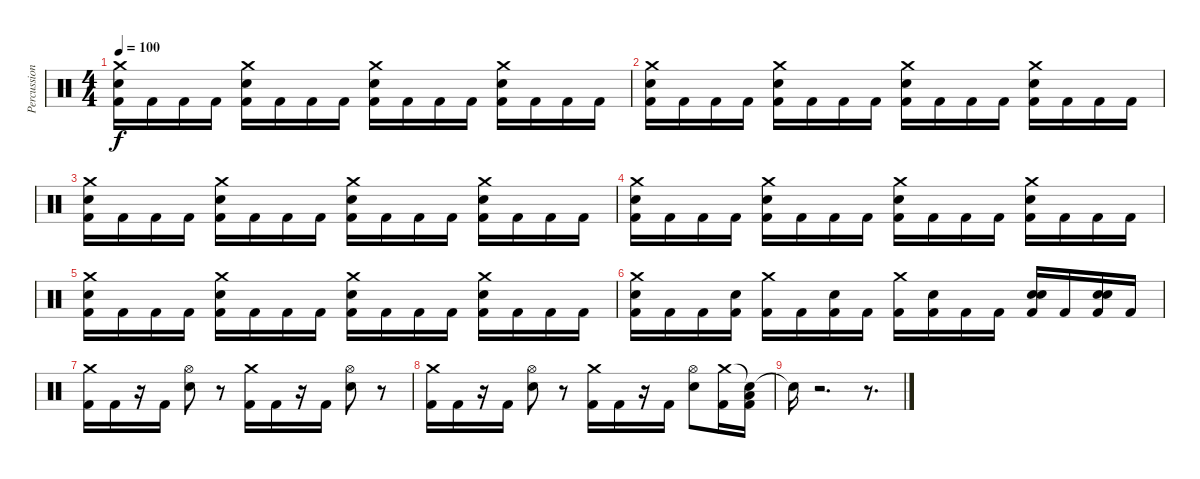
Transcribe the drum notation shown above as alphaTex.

\track ("Percussion" "Percussion") {instrument percussion}
\staff {score}
\articulation defaults
\ts (4 4)
\tempo 100
\clef neutral
\ks c
("Crash medium (hit)" "Snare (hit) 2" "Kick (hit) 2").16{dy f} "Kick (hit) 2".16 "Kick (hit) 2".16 "Kick (hit) 2".16 ("Crash medium (hit)" "Snare (hit) 2" "Kick (hit) 2").16 "Kick (hit) 2".16 "Kick (hit) 2".16 "Kick (hit) 2".16 ("Crash medium (hit)" "Snare (hit) 2" "Kick (hit) 2").16 "Kick (hit) 2".16 "Kick (hit) 2".16 "Kick (hit) 2".16 ("Crash medium (hit)" "Snare (hit) 2" "Kick (hit) 2").16 "Kick (hit) 2".16 "Kick (hit) 2".16 "Kick (hit) 2".16 |
("Crash medium (hit)" "Snare (hit) 2" "Kick (hit) 2").16 "Kick (hit) 2".16 "Kick (hit) 2".16 "Kick (hit) 2".16 ("Crash medium (hit)" "Snare (hit) 2" "Kick (hit) 2").16 "Kick (hit) 2".16 "Kick (hit) 2".16 "Kick (hit) 2".16 ("Crash medium (hit)" "Snare (hit) 2" "Kick (hit) 2").16 "Kick (hit) 2".16 "Kick (hit) 2".16 "Kick (hit) 2".16 ("Crash medium (hit)" "Snare (hit) 2" "Kick (hit) 2").16 "Kick (hit) 2".16 "Kick (hit) 2".16 "Kick (hit) 2".16 |
("Crash medium (hit)" "Snare (hit) 2" "Kick (hit) 2").16 "Kick (hit) 2".16 "Kick (hit) 2".16 "Kick (hit) 2".16 ("Crash medium (hit)" "Snare (hit) 2" "Kick (hit) 2").16 "Kick (hit) 2".16 "Kick (hit) 2".16 "Kick (hit) 2".16 ("Crash medium (hit)" "Snare (hit) 2" "Kick (hit) 2").16 "Kick (hit) 2".16 "Kick (hit) 2".16 "Kick (hit) 2".16 ("Crash medium (hit)" "Snare (hit) 2" "Kick (hit) 2").16 "Kick (hit) 2".16 "Kick (hit) 2".16 "Kick (hit) 2".16 |
("Crash medium (hit)" "Snare (hit) 2" "Kick (hit) 2").16 "Kick (hit) 2".16 "Kick (hit) 2".16 "Kick (hit) 2".16 ("Crash medium (hit)" "Snare (hit) 2" "Kick (hit) 2").16 "Kick (hit) 2".16 "Kick (hit) 2".16 "Kick (hit) 2".16 ("Crash medium (hit)" "Snare (hit) 2" "Kick (hit) 2").16 "Kick (hit) 2".16 "Kick (hit) 2".16 "Kick (hit) 2".16 ("Crash medium (hit)" "Snare (hit) 2" "Kick (hit) 2").16 "Kick (hit) 2".16 "Kick (hit) 2".16 "Kick (hit) 2".16 |
("Crash medium (hit)" "Snare (hit) 2" "Kick (hit) 2").16 "Kick (hit) 2".16 "Kick (hit) 2".16 "Kick (hit) 2".16 ("Crash medium (hit)" "Snare (hit) 2" "Kick (hit) 2").16 "Kick (hit) 2".16 "Kick (hit) 2".16 "Kick (hit) 2".16 ("Crash medium (hit)" "Snare (hit) 2" "Kick (hit) 2").16 "Kick (hit) 2".16 "Kick (hit) 2".16 "Kick (hit) 2".16 ("Crash medium (hit)" "Snare (hit) 2" "Kick (hit) 2").16 "Kick (hit) 2".16 "Kick (hit) 2".16 "Kick (hit) 2".16 |
("Crash medium (hit)" "Snare (hit) 2" "Kick (hit) 2").16 "Kick (hit) 2".16 "Kick (hit) 2".16 ("Snare (hit) 2" "Kick (hit) 2").16 ("Crash medium (hit)" "Kick (hit) 2").16 "Kick (hit) 2".16 ("Snare (hit) 2" "Kick (hit) 2").16 "Kick (hit) 2".16 ("Crash medium (hit)" "Kick (hit) 2").16 ("Snare (hit) 2" "Kick (hit) 2").16 "Kick (hit) 2".16 "Kick (hit) 2".16 ("Snare (hit) 2" "Snare (hit) 2" "Kick (hit) 2").16 "Kick (hit) 2".16 ("Snare (hit) 2" "Snare (hit) 2" "Kick (hit) 2").16 "Kick (hit) 2".16 |
("Crash medium (hit)" "Kick (hit) 2").16 "Kick (hit) 2".16 r.16 "Kick (hit) 2".16 ("Hi-Hat (open)" "Snare (hit) 2").8 r.8 ("Crash medium (hit)" "Kick (hit) 2").16 "Kick (hit) 2".16 r.16 "Kick (hit) 2".16 ("Hi-Hat (open)" "Snare (hit) 2").8 r.8 |
("Crash medium (hit)" "Kick (hit) 2").16 "Kick (hit) 2".16 r.16 "Kick (hit) 2".16 ("Hi-Hat (open)" "Snare (hit) 2").8 r.8 ("Crash medium (hit)" "Kick (hit) 2").16 "Kick (hit) 2".16 r.16 "Kick (hit) 2".16 ("Hi-Hat (open)" "Snare (hit) 2").8 ("Crash medium (hit)" "Kick (hit) 2").16 ("Snare (hit)"{t} "Low Floor Tom (hit)" "Kick (hit) 2").16 |
"Snare (hit)"{t}.16 r.2{d} r.8{d}
